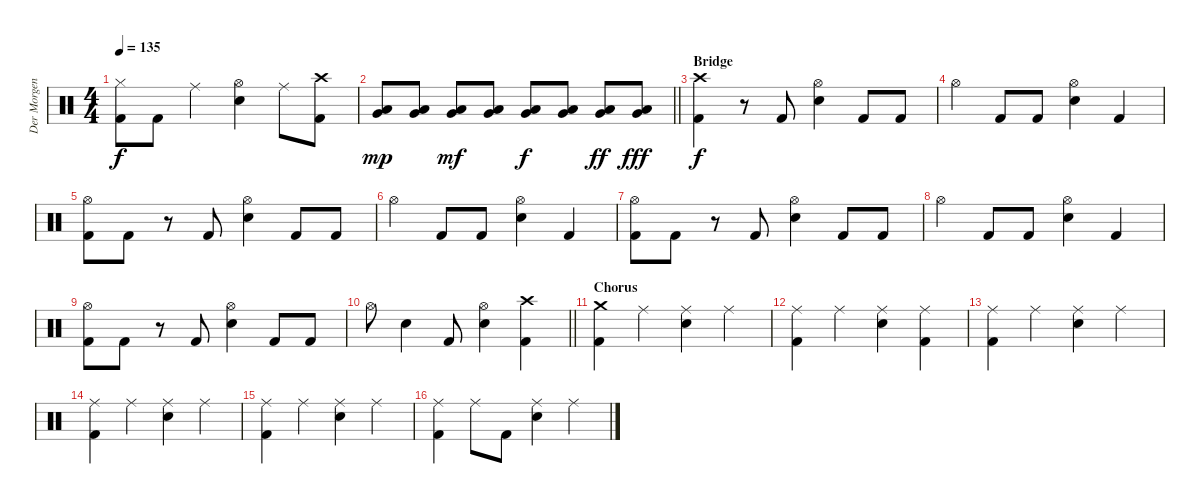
\track ("Der Morgenstern" "Der Morgen") {instrument percussion}
\staff {score}
\articulation defaults
\ts (4 4)
\tempo 135
\clef neutral
\ks c
("Hi-Hat (closed)" "Kick (hit) 2").8{dy f} "Kick (hit) 2".8 "Ride (middle)".4 ("Hi-Hat (open)" "Electric Snare (hit)").4 "Ride (middle)".8 ("Crash high (hit)" "Kick (hit) 2").8 |
\barLineRight lightlight
("Very Low Tom (hit)" "Low Floor Tom (hit)").8{dy mp} ("Very Low Tom (hit)" "Low Floor Tom (hit)").8 ("Very Low Tom (hit)" "Low Floor Tom (hit)").8{dy mf} ("Very Low Tom (hit)" "Low Floor Tom (hit)").8 ("Very Low Tom (hit)" "Low Floor Tom (hit)").8{dy f} ("Very Low Tom (hit)" "Low Floor Tom (hit)").8 ("Very Low Tom (hit)" "Low Floor Tom (hit)").8{dy ff} ("Very Low Tom (hit)" "Low Floor Tom (hit)").8{dy fff} |
\section ("" "Bridge")
("Crash high (hit)" "Kick (hit) 2").4{dy f} r.8 "Kick (hit) 2".8 ("Hi-Hat (open)" "Electric Snare (hit)").4 "Kick (hit) 2".8 "Kick (hit) 2".8 |
"Hi-Hat (open)".4 "Kick (hit) 2".8 "Kick (hit) 2".8 ("Hi-Hat (open)" "Electric Snare (hit)").4 "Kick (hit) 2".4 |
("Hi-Hat (open)" "Kick (hit) 2").8 "Kick (hit) 2".8 r.8 "Kick (hit) 2".8 ("Hi-Hat (open)" "Electric Snare (hit)").4 "Kick (hit) 2".8 "Kick (hit) 2".8 |
"Hi-Hat (open)".4 "Kick (hit) 2".8 "Kick (hit) 2".8 ("Hi-Hat (open)" "Electric Snare (hit)").4 "Kick (hit) 2".4 |
("Hi-Hat (open)" "Kick (hit) 2").8 "Kick (hit) 2".8 r.8 "Kick (hit) 2".8 ("Hi-Hat (open)" "Electric Snare (hit)").4 "Kick (hit) 2".8 "Kick (hit) 2".8 |
"Hi-Hat (open)".4 "Kick (hit) 2".8 "Kick (hit) 2".8 ("Hi-Hat (open)" "Electric Snare (hit)").4 "Kick (hit) 2".4 |
("Hi-Hat (open)" "Kick (hit) 2").8 "Kick (hit) 2".8 r.8 "Kick (hit) 2".8 ("Hi-Hat (open)" "Electric Snare (hit)").4 "Kick (hit) 2".8 "Kick (hit) 2".8 |
\barLineRight lightlight "Hi-Hat (open)".8 "Electric Snare (hit)".4 "Kick (hit) 2".8
("Hi-Hat (open)" "Electric Snare (hit)").4 ("Crash high (hit)" "Kick (hit) 2").4 |
\section ("" "Chorus")
("Crash medium (hit)" "Kick (hit) 2").4 "Ride (middle)".4 ("Ride (middle)" "Electric Snare (hit)").4 "Ride (middle)".4 |
("Ride (middle)" "Kick (hit) 2").4 "Ride (middle)".4 ("Ride (middle)" "Electric Snare (hit)").4 ("Ride (middle)" "Kick (hit) 2").4 |
("Ride (middle)" "Kick (hit) 2").4 "Ride (middle)".4 ("Ride (middle)" "Electric Snare (hit)").4 "Ride (middle)".4 |
("Ride (middle)" "Kick (hit) 2").4 "Ride (middle)".4 ("Ride (middle)" "Electric Snare (hit)").4 "Ride (middle)".4 |
("Ride (middle)" "Kick (hit) 2").4 "Ride (middle)".4 ("Ride (middle)" "Electric Snare (hit)").4 "Ride (middle)".4 |
("Ride (middle)" "Kick (hit) 2").4 "Ride (middle)".8 "Kick (hit) 2".8 ("Ride (middle)" "Electric Snare (hit)").4 "Ride (middle)".4
